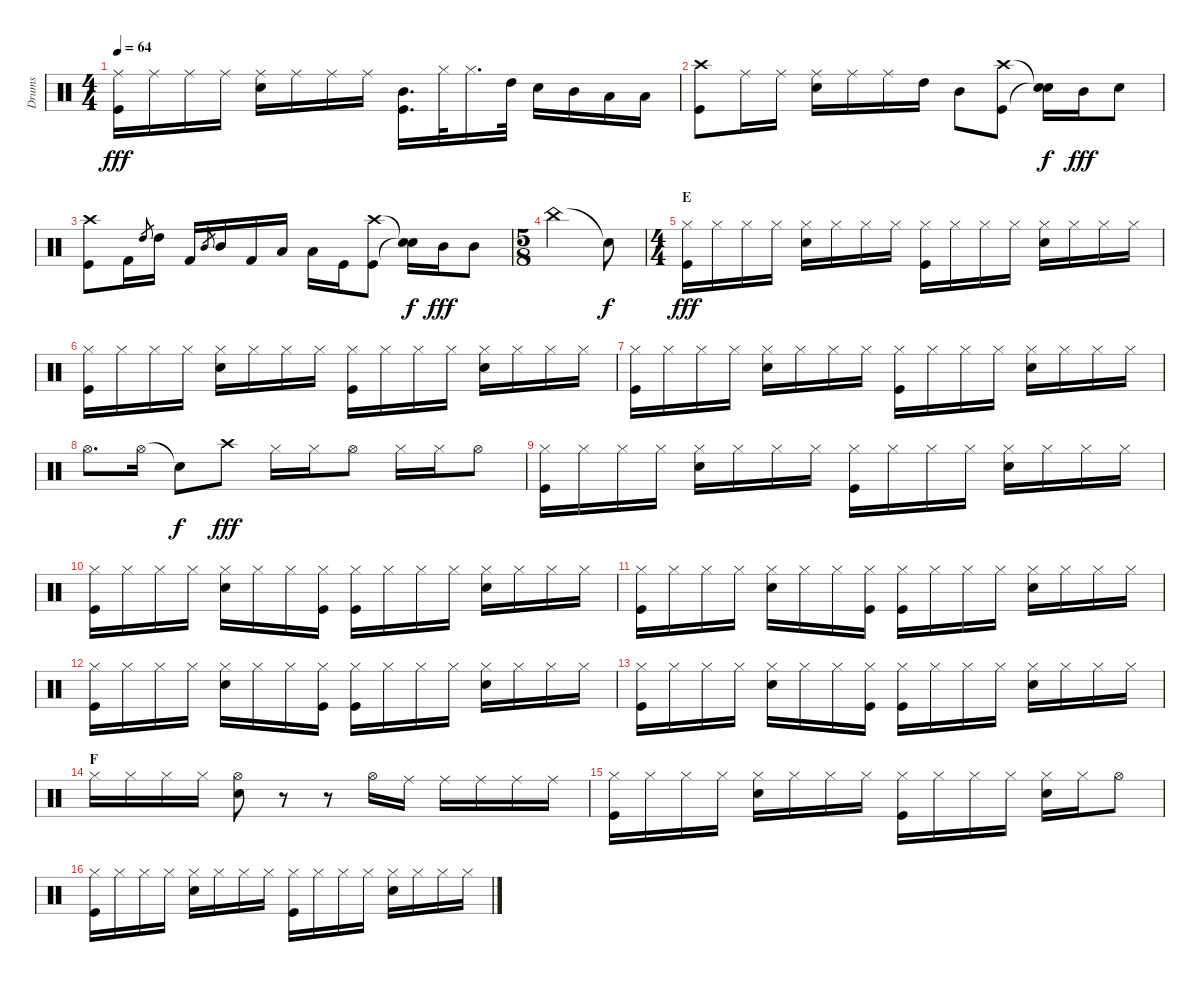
\track ("Drums" "Drums") {instrument percussion}
\staff {score}
\articulation defaults
\ts (4 4)
\tempo 64
\clef neutral
\ks c
("Ride (middle)" "Kick (hit)").16{dy fff} "Ride (middle)".16 "Ride (middle)".16 "Ride (middle)".16 ("Ride (middle)" "Snare (hit) 2").16 "Ride (middle)".16 "Ride (middle)".16 "Ride (middle)".16 ("Mid Tom (hit)" "Kick (hit)").16{d} "Hi-Hat (closed)".32 "Hi-Hat (closed)".16{d} "High Tom (hit)".32 "Snare (hit) 2".16 "Mid Tom (hit)".16 "Low Tom (hit)".16 "Low Tom (hit)".16 |
("Crash high (hit)" "Kick (hit)").8 "Ride (middle)".16 "Ride (middle)".16 ("Ride (middle)" "Snare (hit) 2").16 "Ride (middle)".16 "Ride (middle)".16 "High Tom (hit)".16 "Mid Tom (hit)".8 ("Crash high (hit)" "Kick (hit)").8 ("Snare (hit)"{t} "Snare (hit)"{t}).16{dy f} "Mid Tom (hit)".16{dy fff} "Snare (hit) 2".8 |
("Crash high (hit)" "Kick (hit)").8 "Kick (hit) 2".16 "High Tom (hit)".8{gr} "High Tom (hit)".16 "Kick (hit) 2".16 "Mid Tom (hit)".8{gr} "Mid Tom (hit)".16 "Kick (hit) 2".16 "Low Tom (hit)".16 "Low Tom (hit)".16 "Kick (hit)".16 ("Crash high (hit)" "Kick (hit)").8 ("Snare (hit)"{t} "Snare (hit)"{t}).16{dy f} "Mid Tom (hit)".16{dy fff} "Mid Tom (hit)".8 |
\ts (5 8)
"China (hit)".2 "Snare (hit)"{t}.8{dy f} |
\ts (4 4)
\section ("" "E")
("Hi-Hat (closed)" "Kick (hit)").16{dy fff} "Hi-Hat (closed)".16 "Hi-Hat (closed)".16 "Hi-Hat (closed)".16 ("Hi-Hat (closed)" "Electric Snare (hit)").16 "Hi-Hat (closed)".16 "Hi-Hat (closed)".16 "Hi-Hat (closed)".16 ("Hi-Hat (closed)" "Kick (hit)").16 "Hi-Hat (closed)".16 "Hi-Hat (closed)".16 "Hi-Hat (closed)".16 ("Hi-Hat (closed)" "Electric Snare (hit)").16 "Hi-Hat (closed)".16 "Hi-Hat (closed)".16 "Hi-Hat (closed)".16 |
("Hi-Hat (closed)" "Kick (hit)").16 "Hi-Hat (closed)".16 "Hi-Hat (closed)".16 "Hi-Hat (closed)".16 ("Hi-Hat (closed)" "Electric Snare (hit)").16 "Hi-Hat (closed)".16 "Hi-Hat (closed)".16 "Hi-Hat (closed)".16 ("Hi-Hat (closed)" "Kick (hit)").16 "Hi-Hat (closed)".16 "Hi-Hat (closed)".16 "Hi-Hat (closed)".16 ("Hi-Hat (closed)" "Electric Snare (hit)").16 "Hi-Hat (closed)".16 "Hi-Hat (closed)".16 "Hi-Hat (closed)".16 |
("Hi-Hat (closed)" "Kick (hit)").16 "Hi-Hat (closed)".16 "Hi-Hat (closed)".16 "Hi-Hat (closed)".16 ("Hi-Hat (closed)" "Electric Snare (hit)").16 "Hi-Hat (closed)".16 "Hi-Hat (closed)".16 "Hi-Hat (closed)".16 ("Hi-Hat (closed)" "Kick (hit)").16 "Hi-Hat (closed)".16 "Hi-Hat (closed)".16 "Hi-Hat (closed)".16 ("Hi-Hat (closed)" "Electric Snare (hit)").16 "Hi-Hat (closed)".16 "Hi-Hat (closed)".16 "Hi-Hat (closed)".16 |
"Hi-Hat (open)".8{d} "Hi-Hat (open)".16 "Snare (hit)"{t}.8{dy f} "Crash high (hit)".8{dy fff} "Hi-Hat (closed)".16 "Hi-Hat (closed)".16 "Hi-Hat (open)".8 "Hi-Hat (closed)".16 "Hi-Hat (closed)".16 "Hi-Hat (open)".8 |
("Hi-Hat (closed)" "Kick (hit)").16 "Hi-Hat (closed)".16 "Hi-Hat (closed)".16 "Hi-Hat (closed)".16 ("Hi-Hat (closed)" "Snare (hit) 2").16 "Hi-Hat (closed)".16 "Hi-Hat (closed)".16 "Hi-Hat (closed)".16 ("Hi-Hat (closed)" "Kick (hit)").16 "Hi-Hat (closed)".16 "Hi-Hat (closed)".16 "Hi-Hat (closed)".16 ("Hi-Hat (closed)" "Snare (hit) 2").16 "Hi-Hat (closed)".16 "Hi-Hat (closed)".16 "Hi-Hat (closed)".16 |
("Hi-Hat (closed)" "Kick (hit)").16 "Hi-Hat (closed)".16 "Hi-Hat (closed)".16 "Hi-Hat (closed)".16 ("Hi-Hat (closed)" "Snare (hit) 2").16 "Hi-Hat (closed)".16 "Hi-Hat (closed)".16 ("Hi-Hat (closed)" "Kick (hit)").16 ("Hi-Hat (closed)" "Kick (hit)").16 "Hi-Hat (closed)".16 "Hi-Hat (closed)".16 "Hi-Hat (closed)".16 ("Hi-Hat (closed)" "Snare (hit) 2").16 "Hi-Hat (closed)".16 "Hi-Hat (closed)".16 "Hi-Hat (closed)".16 |
("Hi-Hat (closed)" "Kick (hit)").16 "Hi-Hat (closed)".16 "Hi-Hat (closed)".16 "Hi-Hat (closed)".16 ("Hi-Hat (closed)" "Snare (hit) 2").16 "Hi-Hat (closed)".16 "Hi-Hat (closed)".16 ("Hi-Hat (closed)" "Kick (hit)").16 ("Hi-Hat (closed)" "Kick (hit)").16 "Hi-Hat (closed)".16 "Hi-Hat (closed)".16 "Hi-Hat (closed)".16 ("Hi-Hat (closed)" "Snare (hit) 2").16 "Hi-Hat (closed)".16 "Hi-Hat (closed)".16 "Hi-Hat (closed)".16 |
("Hi-Hat (closed)" "Kick (hit)").16 "Hi-Hat (closed)".16 "Hi-Hat (closed)".16 "Hi-Hat (closed)".16 ("Hi-Hat (closed)" "Snare (hit) 2").16 "Hi-Hat (closed)".16 "Hi-Hat (closed)".16 ("Hi-Hat (closed)" "Kick (hit)").16 ("Hi-Hat (closed)" "Kick (hit)").16 "Hi-Hat (closed)".16 "Hi-Hat (closed)".16 "Hi-Hat (closed)".16 ("Hi-Hat (closed)" "Snare (hit) 2").16 "Hi-Hat (closed)".16 "Hi-Hat (closed)".16 "Hi-Hat (closed)".16 |
("Hi-Hat (closed)" "Kick (hit)").16 "Hi-Hat (closed)".16 "Hi-Hat (closed)".16 "Hi-Hat (closed)".16 ("Hi-Hat (closed)" "Snare (hit) 2").16 "Hi-Hat (closed)".16 "Hi-Hat (closed)".16 ("Hi-Hat (closed)" "Kick (hit)").16 ("Hi-Hat (closed)" "Kick (hit)").16 "Hi-Hat (closed)".16 "Hi-Hat (closed)".16 "Hi-Hat (closed)".16 ("Hi-Hat (closed)" "Snare (hit) 2").16 "Hi-Hat (closed)".16 "Hi-Hat (closed)".16 "Hi-Hat (closed)".16 |
\section ("" "F")
"Hi-Hat (closed)".16 "Hi-Hat (closed)".16 "Hi-Hat (closed)".16 "Hi-Hat (closed)".16 ("Hi-Hat (open)" "Snare (hit) 2").8 r.8 r.8 "Hi-Hat (open)".16 "Ride (middle)".16 "Ride (middle)".16 "Ride (middle)".16 "Ride (middle)".16 "Ride (middle)".16 |
("Hi-Hat (closed)" "Kick (hit)").16 "Hi-Hat (closed)".16 "Hi-Hat (closed)".16 "Hi-Hat (closed)".16 ("Hi-Hat (closed)" "Snare (hit) 2").16 "Hi-Hat (closed)".16 "Hi-Hat (closed)".16 "Hi-Hat (closed)".16 ("Hi-Hat (closed)" "Kick (hit)").16 "Hi-Hat (closed)".16 "Hi-Hat (closed)".16 "Hi-Hat (closed)".16 ("Hi-Hat (closed)" "Snare (hit) 2").16 "Hi-Hat (closed)".16 "Hi-Hat (open)".8 |
("Hi-Hat (closed)" "Kick (hit)").16 "Hi-Hat (closed)".16 "Hi-Hat (closed)".16 "Hi-Hat (closed)".16 ("Hi-Hat (closed)" "Electric Snare (hit)").16 "Hi-Hat (closed)".16 "Hi-Hat (closed)".16 "Hi-Hat (closed)".16 ("Hi-Hat (closed)" "Kick (hit)").16 "Hi-Hat (closed)".16 "Hi-Hat (closed)".16 "Hi-Hat (closed)".16 ("Hi-Hat (closed)" "Electric Snare (hit)").16 "Hi-Hat (closed)".16 "Hi-Hat (closed)".16 "Hi-Hat (closed)".16
